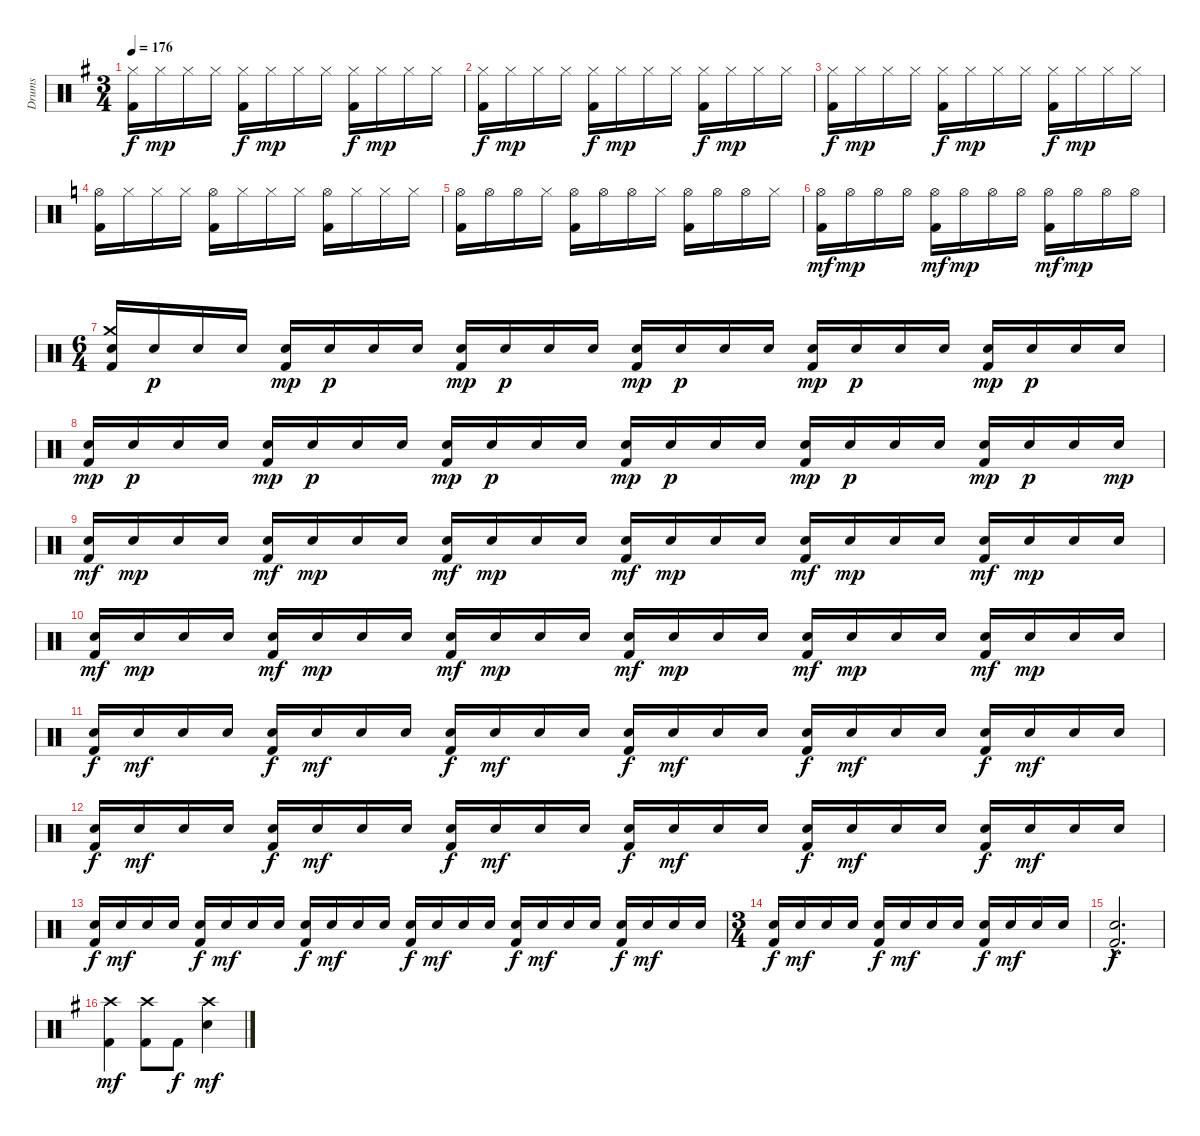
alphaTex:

\track ("Drums" "Drums") {instrument percussion}
\staff {score}
\articulation defaults
\ts (3 4)
\tempo 176
\clef neutral
\ks g
("Hi-Hat (closed)" "Kick (hit) 2").16{dy f} "Hi-Hat (closed)".16{dy mp} "Hi-Hat (closed)".16 "Hi-Hat (closed)".16 ("Hi-Hat (closed)" "Kick (hit) 2").16{dy f} "Hi-Hat (closed)".16{dy mp} "Hi-Hat (closed)".16 "Hi-Hat (closed)".16 ("Hi-Hat (closed)" "Kick (hit) 2").16{dy f} "Hi-Hat (closed)".16{dy mp} "Hi-Hat (closed)".16 "Hi-Hat (closed)".16 |
("Hi-Hat (closed)" "Kick (hit) 2").16{dy f} "Hi-Hat (closed)".16{dy mp} "Hi-Hat (closed)".16 "Hi-Hat (closed)".16 ("Hi-Hat (closed)" "Kick (hit) 2").16{dy f} "Hi-Hat (closed)".16{dy mp} "Hi-Hat (closed)".16 "Hi-Hat (closed)".16 ("Hi-Hat (closed)" "Kick (hit) 2").16{dy f} "Hi-Hat (closed)".16{dy mp} "Hi-Hat (closed)".16 "Hi-Hat (closed)".16 |
("Hi-Hat (closed)" "Kick (hit) 2").16{dy f} "Hi-Hat (closed)".16{dy mp} "Hi-Hat (closed)".16 "Hi-Hat (closed)".16 ("Hi-Hat (closed)" "Kick (hit) 2").16{dy f} "Hi-Hat (closed)".16{dy mp} "Hi-Hat (closed)".16 "Hi-Hat (closed)".16 ("Hi-Hat (closed)" "Kick (hit) 2").16{dy f} "Hi-Hat (closed)".16{dy mp} "Hi-Hat (closed)".16 "Hi-Hat (closed)".16 |
\ks c
("Hi-Hat (open)" "Kick (hit) 2").16 "Hi-Hat (closed)".16 "Hi-Hat (closed)".16 "Hi-Hat (closed)".16 ("Hi-Hat (open)" "Kick (hit) 2").16 "Hi-Hat (closed)".16 "Hi-Hat (closed)".16 "Hi-Hat (closed)".16 ("Hi-Hat (open)" "Kick (hit) 2").16 "Hi-Hat (closed)".16 "Hi-Hat (closed)".16 "Hi-Hat (closed)".16 |
("Hi-Hat (open)" "Kick (hit) 2").16 "Hi-Hat (open)".16 "Hi-Hat (open)".16 "Hi-Hat (closed)".16 ("Hi-Hat (open)" "Kick (hit) 2").16 "Hi-Hat (open)".16 "Hi-Hat (open)".16 "Hi-Hat (closed)".16 ("Hi-Hat (open)" "Kick (hit) 2").16 "Hi-Hat (open)".16 "Hi-Hat (open)".16 "Hi-Hat (closed)".16 |
("Hi-Hat (open)" "Kick (hit) 2").16{dy mf} "Hi-Hat (open)".16{dy mp} "Hi-Hat (open)".16 "Hi-Hat (open)".16 ("Hi-Hat (open)" "Kick (hit) 2").16{dy mf} "Hi-Hat (open)".16{dy mp} "Hi-Hat (open)".16 "Hi-Hat (open)".16 ("Hi-Hat (open)" "Kick (hit) 2").16{dy mf} "Hi-Hat (open)".16{dy mp} "Hi-Hat (open)".16 "Hi-Hat (open)".16 |
\ts (6 4)
("Crash medium (hit)" "Snare (hit) 2" "Kick (hit) 2").16 "Snare (hit) 2".16{dy p} "Snare (hit) 2".16 "Snare (hit) 2".16 ("Snare (hit) 2" "Kick (hit) 2").16{dy mp} "Snare (hit) 2".16{dy p} "Snare (hit) 2".16 "Snare (hit) 2".16 ("Snare (hit) 2" "Kick (hit) 2").16{dy mp} "Snare (hit) 2".16{dy p} "Snare (hit) 2".16 "Snare (hit) 2".16 ("Snare (hit) 2" "Kick (hit) 2").16{dy mp} "Snare (hit) 2".16{dy p} "Snare (hit) 2".16 "Snare (hit) 2".16 ("Snare (hit) 2" "Kick (hit) 2").16{dy mp} "Snare (hit) 2".16{dy p} "Snare (hit) 2".16 "Snare (hit) 2".16 ("Snare (hit) 2" "Kick (hit) 2").16{dy mp} "Snare (hit) 2".16{dy p} "Snare (hit) 2".16 "Snare (hit) 2".16 |
("Snare (hit) 2" "Kick (hit) 2").16{dy mp} "Snare (hit) 2".16{dy p} "Snare (hit) 2".16 "Snare (hit) 2".16 ("Snare (hit) 2" "Kick (hit) 2").16{dy mp} "Snare (hit) 2".16{dy p} "Snare (hit) 2".16 "Snare (hit) 2".16 ("Snare (hit) 2" "Kick (hit) 2").16{dy mp} "Snare (hit) 2".16{dy p} "Snare (hit) 2".16 "Snare (hit) 2".16 ("Snare (hit) 2" "Kick (hit) 2").16{dy mp} "Snare (hit) 2".16{dy p} "Snare (hit) 2".16 "Snare (hit) 2".16 ("Snare (hit) 2" "Kick (hit) 2").16{dy mp} "Snare (hit) 2".16{dy p} "Snare (hit) 2".16 "Snare (hit) 2".16 ("Snare (hit) 2" "Kick (hit) 2").16{dy mp} "Snare (hit) 2".16{dy p} "Snare (hit) 2".16 "Snare (hit) 2".16{dy mp} |
("Snare (hit) 2" "Kick (hit) 2").16{dy mf} "Snare (hit) 2".16{dy mp} "Snare (hit) 2".16 "Snare (hit) 2".16 ("Snare (hit) 2" "Kick (hit) 2").16{dy mf} "Snare (hit) 2".16{dy mp} "Snare (hit) 2".16 "Snare (hit) 2".16 ("Snare (hit) 2" "Kick (hit) 2").16{dy mf} "Snare (hit) 2".16{dy mp} "Snare (hit) 2".16 "Snare (hit) 2".16 ("Snare (hit) 2" "Kick (hit) 2").16{dy mf} "Snare (hit) 2".16{dy mp} "Snare (hit) 2".16 "Snare (hit) 2".16 ("Snare (hit) 2" "Kick (hit) 2").16{dy mf} "Snare (hit) 2".16{dy mp} "Snare (hit) 2".16 "Snare (hit) 2".16 ("Snare (hit) 2" "Kick (hit) 2").16{dy mf} "Snare (hit) 2".16{dy mp} "Snare (hit) 2".16 "Snare (hit) 2".16 |
("Snare (hit) 2" "Kick (hit) 2").16{dy mf} "Snare (hit) 2".16{dy mp} "Snare (hit) 2".16 "Snare (hit) 2".16 ("Snare (hit) 2" "Kick (hit) 2").16{dy mf} "Snare (hit) 2".16{dy mp} "Snare (hit) 2".16 "Snare (hit) 2".16 ("Snare (hit) 2" "Kick (hit) 2").16{dy mf} "Snare (hit) 2".16{dy mp} "Snare (hit) 2".16 "Snare (hit) 2".16 ("Snare (hit) 2" "Kick (hit) 2").16{dy mf} "Snare (hit) 2".16{dy mp} "Snare (hit) 2".16 "Snare (hit) 2".16 ("Snare (hit) 2" "Kick (hit) 2").16{dy mf} "Snare (hit) 2".16{dy mp} "Snare (hit) 2".16 "Snare (hit) 2".16 ("Snare (hit) 2" "Kick (hit) 2").16{dy mf} "Snare (hit) 2".16{dy mp} "Snare (hit) 2".16 "Snare (hit) 2".16 |
("Snare (hit) 2" "Kick (hit) 2").16{dy f} "Snare (hit) 2".16{dy mf} "Snare (hit) 2".16 "Snare (hit) 2".16 ("Snare (hit) 2" "Kick (hit) 2").16{dy f} "Snare (hit) 2".16{dy mf} "Snare (hit) 2".16 "Snare (hit) 2".16 ("Snare (hit) 2" "Kick (hit) 2").16{dy f} "Snare (hit) 2".16{dy mf} "Snare (hit) 2".16 "Snare (hit) 2".16 ("Snare (hit) 2" "Kick (hit) 2").16{dy f} "Snare (hit) 2".16{dy mf} "Snare (hit) 2".16 "Snare (hit) 2".16 ("Snare (hit) 2" "Kick (hit) 2").16{dy f} "Snare (hit) 2".16{dy mf} "Snare (hit) 2".16 "Snare (hit) 2".16 ("Snare (hit) 2" "Kick (hit) 2").16{dy f} "Snare (hit) 2".16{dy mf} "Snare (hit) 2".16 "Snare (hit) 2".16 |
("Snare (hit) 2" "Kick (hit) 2").16{dy f} "Snare (hit) 2".16{dy mf} "Snare (hit) 2".16 "Snare (hit) 2".16 ("Snare (hit) 2" "Kick (hit) 2").16{dy f} "Snare (hit) 2".16{dy mf} "Snare (hit) 2".16 "Snare (hit) 2".16 ("Snare (hit) 2" "Kick (hit) 2").16{dy f} "Snare (hit) 2".16{dy mf} "Snare (hit) 2".16 "Snare (hit) 2".16 ("Snare (hit) 2" "Kick (hit) 2").16{dy f} "Snare (hit) 2".16{dy mf} "Snare (hit) 2".16 "Snare (hit) 2".16 ("Snare (hit) 2" "Kick (hit) 2").16{dy f} "Snare (hit) 2".16{dy mf} "Snare (hit) 2".16 "Snare (hit) 2".16 ("Snare (hit) 2" "Kick (hit) 2").16{dy f} "Snare (hit) 2".16{dy mf} "Snare (hit) 2".16 "Snare (hit) 2".16 |
("Snare (hit) 2" "Kick (hit) 2").16{dy f} "Snare (hit) 2".16{dy mf} "Snare (hit) 2".16 "Snare (hit) 2".16 ("Snare (hit) 2" "Kick (hit) 2").16{dy f} "Snare (hit) 2".16{dy mf} "Snare (hit) 2".16 "Snare (hit) 2".16 ("Snare (hit) 2" "Kick (hit) 2").16{dy f} "Snare (hit) 2".16{dy mf} "Snare (hit) 2".16 "Snare (hit) 2".16 ("Snare (hit) 2" "Kick (hit) 2").16{dy f} "Snare (hit) 2".16{dy mf} "Snare (hit) 2".16 "Snare (hit) 2".16 ("Snare (hit) 2" "Kick (hit) 2").16{dy f} "Snare (hit) 2".16{dy mf} "Snare (hit) 2".16 "Snare (hit) 2".16 ("Snare (hit) 2" "Kick (hit) 2").16{dy f} "Snare (hit) 2".16{dy mf} "Snare (hit) 2".16 "Snare (hit) 2".16 |
\ts (3 4)
("Snare (hit) 2" "Kick (hit) 2").16{dy f} "Snare (hit) 2".16{dy mf} "Snare (hit) 2".16 "Snare (hit) 2".16 ("Snare (hit) 2" "Kick (hit) 2").16{dy f} "Snare (hit) 2".16{dy mf} "Snare (hit) 2".16 "Snare (hit) 2".16 ("Snare (hit) 2" "Kick (hit) 2").16{dy f} "Snare (hit) 2".16{dy mf} "Snare (hit) 2".16 "Snare (hit) 2".16 |
("Snare (hit) 2"{hac} "Kick (hit) 2"{hac}).2{d dy f} |
\ks g
("Crash high (hit)" "Kick (hit) 2").4{dy mf} ("Crash high (hit)" "Kick (hit) 2").8 "Kick (hit) 2".8{dy f} ("Crash high (hit)" "Snare (hit) 2").4{dy mf}
